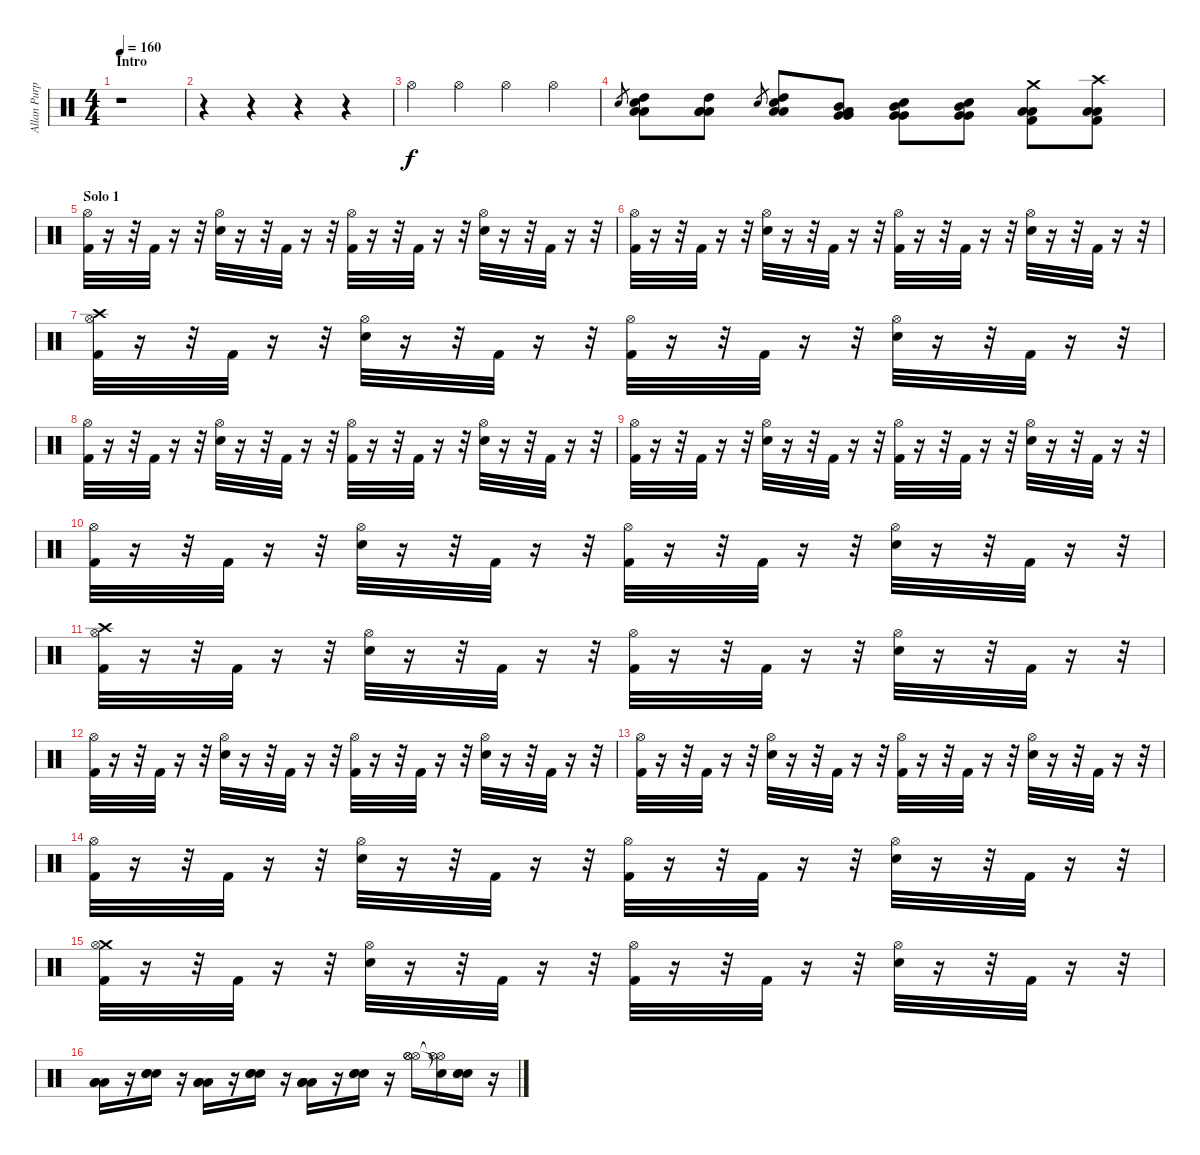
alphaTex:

\track ("Allan Purple" "Allan Purp") {instrument percussion}
\staff {score}
\articulation defaults
\ts (4 4)
\section ("" "Intro")
\tempo 160
\clef neutral
\ks c
r.1{dy f} |
r.4 r.4 r.4 r.4 |
"Hi-Hat (open)".4 "Hi-Hat (open)".4 "Hi-Hat (open)".4 "Hi-Hat (open)".4 |
"Electric Snare (hit)".8{gr} ("Electric Snare (hit)" "High Tom (hit)" "Low Tom (hit)" "Low Tom (hit)").8 ("Low Tom (hit)" "High Tom (hit)" "Low Tom (hit)" "Low Tom (hit)").8 "Electric Snare (hit)".8{gr} ("Electric Snare (hit)" "High Tom (hit)" "Low Tom (hit)" "Low Tom (hit)").8 ("Low Tom (hit)" "Mid Tom (hit)" "Very Low Tom (hit)" "Very Low Tom (hit)").8 ("Snare (hit) 2" "Mid Tom (hit)" "Very Low Tom (hit)" "Very Low Tom (hit)").8 ("Snare (hit) 2" "Mid Tom (hit)" "Very Low Tom (hit)" "Very Low Tom (hit)").8 ("Crash medium (hit)" "Kick (hit) 2" "Low Floor Tom (hit)" "Low Floor Tom (hit)").8 ("Crash high (hit)" "Kick (hit) 2" "Low Floor Tom (hit)" "Low Floor Tom (hit)").8 |
\section ("" "Solo 1")
("Hi-Hat (open)" "Kick (hit) 2").32 r.16 r.32 "Kick (hit) 2".32 r.16 r.32 ("Hi-Hat (open)" "Electric Snare (hit)").32 r.16 r.32 "Kick (hit) 2".32 r.16 r.32 ("Hi-Hat (open)" "Kick (hit) 2").32 r.16 r.32 "Kick (hit) 2".32 r.16 r.32 ("Hi-Hat (open)" "Electric Snare (hit)").32 r.16 r.32 "Kick (hit) 2".32 r.16 r.32 |
("Hi-Hat (open)" "Kick (hit) 2").32 r.16 r.32 "Kick (hit) 2".32 r.16 r.32 ("Hi-Hat (open)" "Electric Snare (hit)").32 r.16 r.32 "Kick (hit) 2".32 r.16 r.32 ("Hi-Hat (open)" "Kick (hit) 2").32 r.16 r.32 "Kick (hit) 2".32 r.16 r.32 ("Hi-Hat (open)" "Electric Snare (hit)").32 r.16 r.32 "Kick (hit) 2".32 r.16 r.32 |
("Crash high (hit)" "Hi-Hat (open)" "Kick (hit) 2").32 r.16 r.32 "Kick (hit) 2".32 r.16 r.32 ("Hi-Hat (open)" "Electric Snare (hit)").32 r.16 r.32 "Kick (hit) 2".32 r.16 r.32 ("Hi-Hat (open)" "Kick (hit) 2").32 r.16 r.32 "Kick (hit) 2".32 r.16 r.32 ("Hi-Hat (open)" "Electric Snare (hit)").32 r.16 r.32 "Kick (hit) 2".32 r.16 r.32 |
("Hi-Hat (open)" "Kick (hit) 2").32 r.16 r.32 "Kick (hit) 2".32 r.16 r.32 ("Hi-Hat (open)" "Electric Snare (hit)").32 r.16 r.32 "Kick (hit) 2".32 r.16 r.32 ("Hi-Hat (open)" "Kick (hit) 2").32 r.16 r.32 "Kick (hit) 2".32 r.16 r.32 ("Hi-Hat (open)" "Electric Snare (hit)").32 r.16 r.32 "Kick (hit) 2".32 r.16 r.32 |
("Hi-Hat (open)" "Kick (hit) 2").32 r.16 r.32 "Kick (hit) 2".32 r.16 r.32 ("Hi-Hat (open)" "Electric Snare (hit)").32 r.16 r.32 "Kick (hit) 2".32 r.16 r.32 ("Hi-Hat (open)" "Kick (hit) 2").32 r.16 r.32 "Kick (hit) 2".32 r.16 r.32 ("Hi-Hat (open)" "Electric Snare (hit)").32 r.16 r.32 "Kick (hit) 2".32 r.16 r.32 |
("Hi-Hat (open)" "Kick (hit) 2").32 r.16 r.32 "Kick (hit) 2".32 r.16 r.32 ("Hi-Hat (open)" "Electric Snare (hit)").32 r.16 r.32 "Kick (hit) 2".32 r.16 r.32 ("Hi-Hat (open)" "Kick (hit) 2").32 r.16 r.32 "Kick (hit) 2".32 r.16 r.32 ("Hi-Hat (open)" "Electric Snare (hit)").32 r.16 r.32 "Kick (hit) 2".32 r.16 r.32 |
("Crash high (hit)" "Hi-Hat (open)" "Kick (hit) 2").32 r.16 r.32 "Kick (hit) 2".32 r.16 r.32 ("Hi-Hat (open)" "Electric Snare (hit)").32 r.16 r.32 "Kick (hit) 2".32 r.16 r.32 ("Hi-Hat (open)" "Kick (hit) 2").32 r.16 r.32 "Kick (hit) 2".32 r.16 r.32 ("Hi-Hat (open)" "Electric Snare (hit)").32 r.16 r.32 "Kick (hit) 2".32 r.16 r.32 |
("Hi-Hat (open)" "Kick (hit) 2").32 r.16 r.32 "Kick (hit) 2".32 r.16 r.32 ("Hi-Hat (open)" "Electric Snare (hit)").32 r.16 r.32 "Kick (hit) 2".32 r.16 r.32 ("Hi-Hat (open)" "Kick (hit) 2").32 r.16 r.32 "Kick (hit) 2".32 r.16 r.32 ("Hi-Hat (open)" "Electric Snare (hit)").32 r.16 r.32 "Kick (hit) 2".32 r.16 r.32 |
("Hi-Hat (open)" "Kick (hit) 2").32 r.16 r.32 "Kick (hit) 2".32 r.16 r.32 ("Hi-Hat (open)" "Electric Snare (hit)").32 r.16 r.32 "Kick (hit) 2".32 r.16 r.32 ("Hi-Hat (open)" "Kick (hit) 2").32 r.16 r.32 "Kick (hit) 2".32 r.16 r.32 ("Hi-Hat (open)" "Electric Snare (hit)").32 r.16 r.32 "Kick (hit) 2".32 r.16 r.32 |
("Hi-Hat (open)" "Kick (hit) 2").32 r.16 r.32 "Kick (hit) 2".32 r.16 r.32 ("Hi-Hat (open)" "Electric Snare (hit)").32 r.16 r.32 "Kick (hit) 2".32 r.16 r.32 ("Hi-Hat (open)" "Kick (hit) 2").32 r.16 r.32 "Kick (hit) 2".32 r.16 r.32 ("Hi-Hat (open)" "Electric Snare (hit)").32 r.16 r.32 "Kick (hit) 2".32 r.16 r.32 |
("Crash medium (hit)" "Hi-Hat (open)" "Kick (hit) 2").32 r.16 r.32 "Kick (hit) 2".32 r.16 r.32 ("Hi-Hat (open)" "Electric Snare (hit)").32 r.16 r.32 "Kick (hit) 2".32 r.16 r.32 ("Hi-Hat (open)" "Kick (hit) 2").32 r.16 r.32 "Kick (hit) 2".32 r.16 r.32 ("Hi-Hat (open)" "Electric Snare (hit)").32 r.16 r.32 "Kick (hit) 2".32 r.16 r.32 |
("Low Tom (hit)" "Low Tom (hit)" "Low Tom (hit)").16 r.16 ("Electric Snare (hit)" "Electric Snare (hit)" "Electric Snare (hit)").16 r.16 ("Low Tom (hit)" "Low Tom (hit)" "Low Tom (hit)").16 r.16 ("Electric Snare (hit)" "Electric Snare (hit)" "Electric Snare (hit)").16 r.16 ("Low Tom (hit)" "Low Tom (hit)" "Low Tom (hit)").16 r.16 ("Electric Snare (hit)" "Electric Snare (hit)" "Electric Snare (hit)").16 r.16 ("Hi-Hat (open)" "Hi-Hat (open)" "Hi-Hat (open)").16 ("Snare (hit)"{t} "Hi-Hat (open)"{t} "Hi-Hat (open)"{t}).16 ("Electric Snare (hit)" "Electric Snare (hit)" "Electric Snare (hit)").16 r.16
